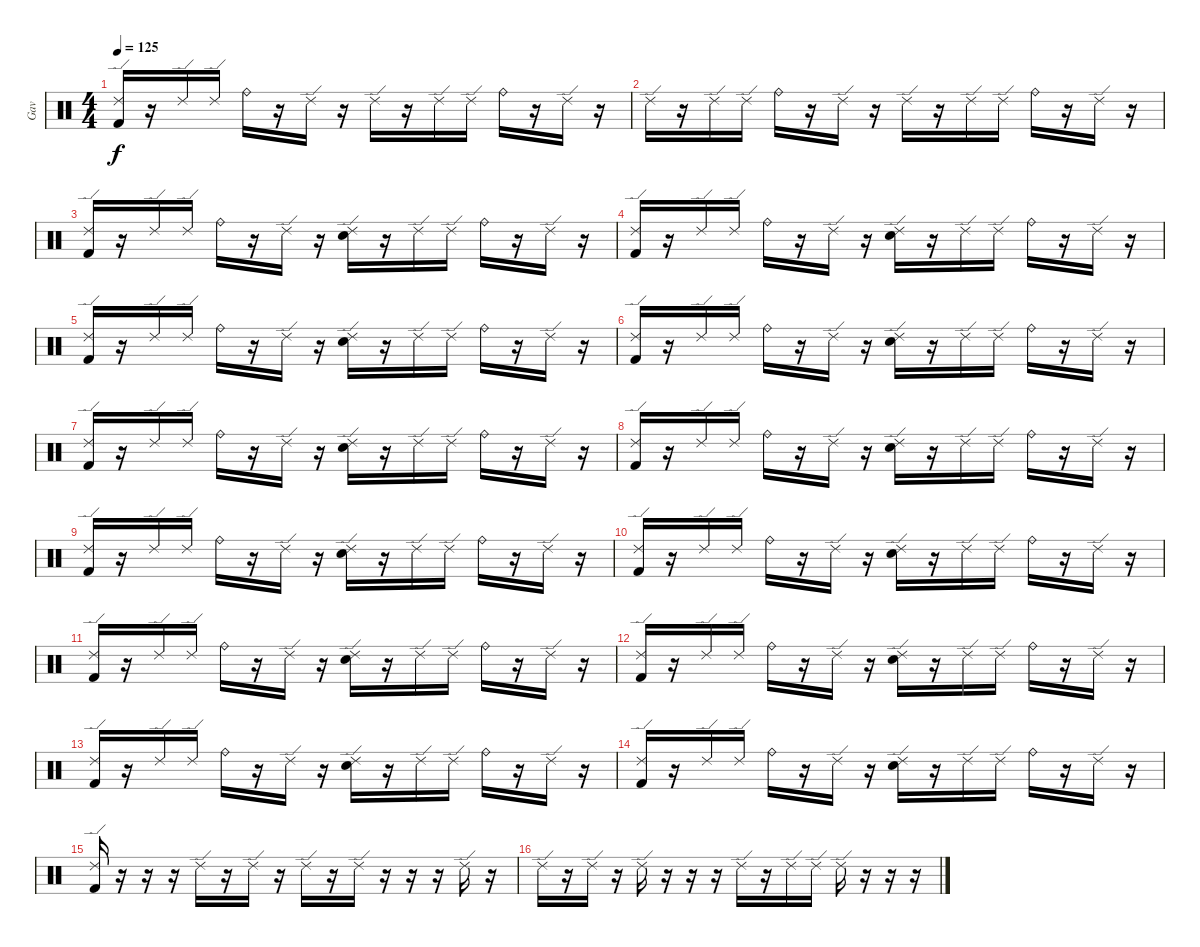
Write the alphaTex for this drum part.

\track ("Gav" "Gav") {instrument percussion}
\staff {score}
\articulation defaults
\ts (4 4)
\tempo 125
\clef neutral
\ks c
("Ride (edge) 2" "Kick (hit) 2").16{dy f} r.16 "Ride (edge) 2".16 "Ride (edge) 2".16 "Ride (bell)".16 r.16 "Ride (edge) 2".16 r.16 "Ride (edge) 2".16 r.16 "Ride (edge) 2".16 "Ride (edge) 2".16 "Ride (bell)".16 r.16 "Ride (edge) 2".16 r.16 |
"Ride (edge) 2".16 r.16 "Ride (edge) 2".16 "Ride (edge) 2".16 "Ride (bell)".16 r.16 "Ride (edge) 2".16 r.16 "Ride (edge) 2".16 r.16 "Ride (edge) 2".16 "Ride (edge) 2".16 "Ride (bell)".16 r.16 "Ride (edge) 2".16 r.16 |
("Ride (edge) 2" "Kick (hit) 2").16 r.16 "Ride (edge) 2".16 "Ride (edge) 2".16 "Ride (bell)".16 r.16 "Ride (edge) 2".16 r.16 ("Ride (edge) 2" "Snare (hit) 2").16 r.16 "Ride (edge) 2".16 "Ride (edge) 2".16 "Ride (bell)".16 r.16 "Ride (edge) 2".16 r.16 |
("Ride (edge) 2" "Kick (hit) 2").16 r.16 "Ride (edge) 2".16 "Ride (edge) 2".16 "Ride (bell)".16 r.16 "Ride (edge) 2".16 r.16 ("Ride (edge) 2" "Snare (hit) 2").16 r.16 "Ride (edge) 2".16 "Ride (edge) 2".16 "Ride (bell)".16 r.16 "Ride (edge) 2".16 r.16 |
("Ride (edge) 2" "Kick (hit) 2").16 r.16 "Ride (edge) 2".16 "Ride (edge) 2".16 "Ride (bell)".16 r.16 "Ride (edge) 2".16 r.16 ("Ride (edge) 2" "Snare (hit) 2").16 r.16 "Ride (edge) 2".16 "Ride (edge) 2".16 "Ride (bell)".16 r.16 "Ride (edge) 2".16 r.16 |
("Ride (edge) 2" "Kick (hit) 2").16 r.16 "Ride (edge) 2".16 "Ride (edge) 2".16 "Ride (bell)".16 r.16 "Ride (edge) 2".16 r.16 ("Ride (edge) 2" "Snare (hit) 2").16 r.16 "Ride (edge) 2".16 "Ride (edge) 2".16 "Ride (bell)".16 r.16 "Ride (edge) 2".16 r.16 |
("Ride (edge) 2" "Kick (hit) 2").16 r.16 "Ride (edge) 2".16 "Ride (edge) 2".16 "Ride (bell)".16 r.16 "Ride (edge) 2".16 r.16 ("Ride (edge) 2" "Snare (hit) 2").16 r.16 "Ride (edge) 2".16 "Ride (edge) 2".16 "Ride (bell)".16 r.16 "Ride (edge) 2".16 r.16 |
("Ride (edge) 2" "Kick (hit) 2").16 r.16 "Ride (edge) 2".16 "Ride (edge) 2".16 "Ride (bell)".16 r.16 "Ride (edge) 2".16 r.16 ("Ride (edge) 2" "Snare (hit) 2").16 r.16 "Ride (edge) 2".16 "Ride (edge) 2".16 "Ride (bell)".16 r.16 "Ride (edge) 2".16 r.16 |
("Ride (edge) 2" "Kick (hit) 2").16 r.16 "Ride (edge) 2".16 "Ride (edge) 2".16 "Ride (bell)".16 r.16 "Ride (edge) 2".16 r.16 ("Ride (edge) 2" "Snare (hit) 2").16 r.16 "Ride (edge) 2".16 "Ride (edge) 2".16 "Ride (bell)".16 r.16 "Ride (edge) 2".16 r.16 |
("Ride (edge) 2" "Kick (hit) 2").16 r.16 "Ride (edge) 2".16 "Ride (edge) 2".16 "Ride (bell)".16 r.16 "Ride (edge) 2".16 r.16 ("Ride (edge) 2" "Snare (hit) 2").16 r.16 "Ride (edge) 2".16 "Ride (edge) 2".16 "Ride (bell)".16 r.16 "Ride (edge) 2".16 r.16 |
("Ride (edge) 2" "Kick (hit) 2").16 r.16 "Ride (edge) 2".16 "Ride (edge) 2".16 "Ride (bell)".16 r.16 "Ride (edge) 2".16 r.16 ("Ride (edge) 2" "Snare (hit) 2").16 r.16 "Ride (edge) 2".16 "Ride (edge) 2".16 "Ride (bell)".16 r.16 "Ride (edge) 2".16 r.16 |
("Ride (edge) 2" "Kick (hit) 2").16 r.16 "Ride (edge) 2".16 "Ride (edge) 2".16 "Ride (bell)".16 r.16 "Ride (edge) 2".16 r.16 ("Ride (edge) 2" "Snare (hit) 2").16 r.16 "Ride (edge) 2".16 "Ride (edge) 2".16 "Ride (bell)".16 r.16 "Ride (edge) 2".16 r.16 |
("Ride (edge) 2" "Kick (hit) 2").16 r.16 "Ride (edge) 2".16 "Ride (edge) 2".16 "Ride (bell)".16 r.16 "Ride (edge) 2".16 r.16 ("Ride (edge) 2" "Snare (hit) 2").16 r.16 "Ride (edge) 2".16 "Ride (edge) 2".16 "Ride (bell)".16 r.16 "Ride (edge) 2".16 r.16 |
("Ride (edge) 2" "Kick (hit) 2").16 r.16 "Ride (edge) 2".16 "Ride (edge) 2".16 "Ride (bell)".16 r.16 "Ride (edge) 2".16 r.16 ("Ride (edge) 2" "Snare (hit) 2").16 r.16 "Ride (edge) 2".16 "Ride (edge) 2".16 "Ride (bell)".16 r.16 "Ride (edge) 2".16 r.16 |
("Ride (edge) 2" "Kick (hit) 2").16 r.16 r.16 r.16 "Ride (edge) 2".16 r.16 "Ride (edge) 2".16 r.16 "Ride (edge) 2".16 r.16 "Ride (edge) 2".16 r.16 r.16 r.16 "Ride (edge) 2".16 r.16 |
"Ride (edge) 2".16 r.16 "Ride (edge) 2".16 r.16 "Ride (edge) 2".16 r.16 r.16 r.16 "Ride (edge) 2".16 r.16 "Ride (edge) 2".16 "Ride (edge) 2".16 "Ride (edge) 2".16 r.16 r.16 r.16
